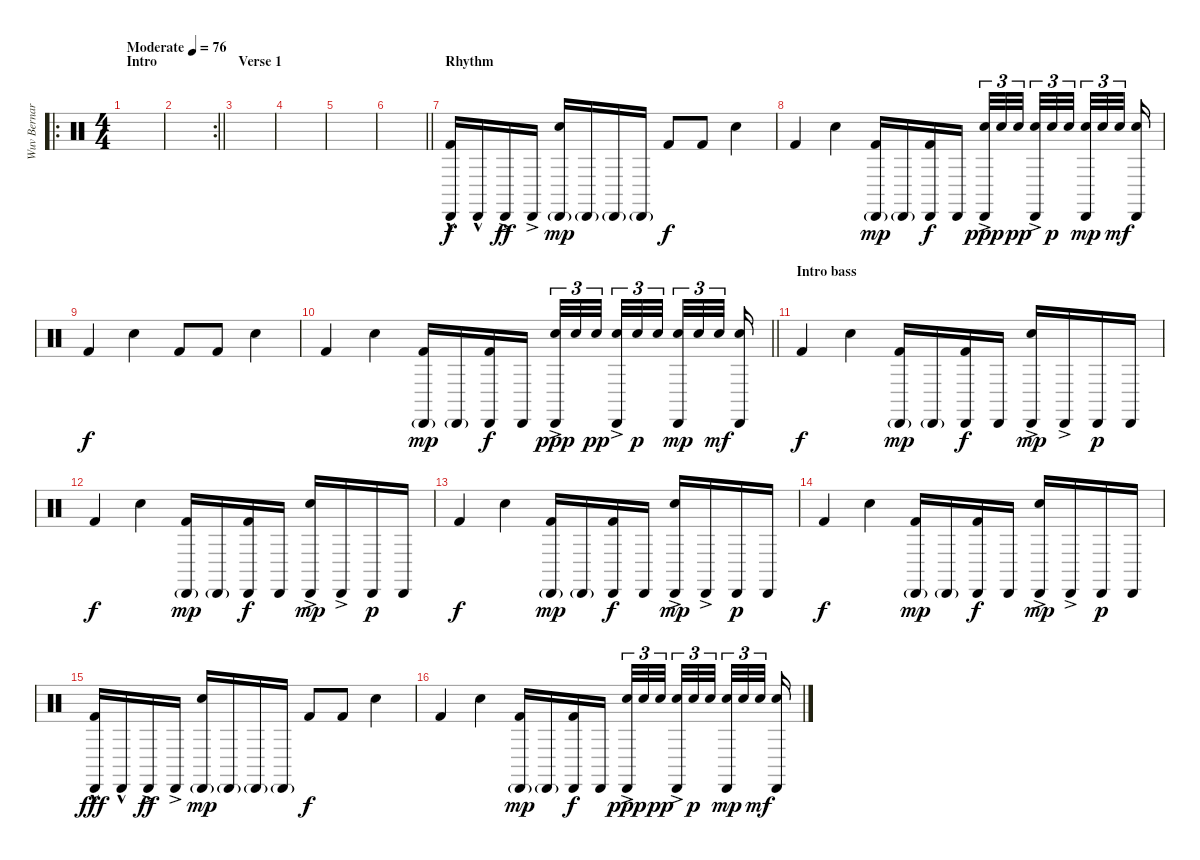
\track ("Wuv Bernardo" "Wuv Bernar") {instrument percussion}
\staff {score}
\articulation defaults
\ro
\ts (4 4)
\section ("" "Intro")
\tempo (76 "Moderate")
\clef neutral
\ks c
|
\rc 2
\barLineRight lightlight
|
\section ("" "Verse 1")
|
|
|
\barLineRight lightlight
|
\section ("" "Rhythm")
("Cabasa (hit)"{hac} "Kick (hit) 2").16 "Cabasa (hit)"{hac}.16 "Cabasa (hit)"{ac}.16{dy ff} "Cabasa (hit)"{ac}.16 ("Cabasa (hit)"{g} "Snare (hit) 2").16{dy mp} "Cabasa (hit)"{g}.16 "Cabasa (hit)"{g}.16 "Cabasa (hit)"{g}.16 "Kick (hit) 2".8{dy f} "Kick (hit) 2".8 "Snare (hit) 2".4 |
"Kick (hit) 2".4 "Snare (hit) 2".4 ("Cabasa (hit)"{g} "Kick (hit) 2").16{dy mp} "Cabasa (hit)"{g}.16 ("Cabasa (hit)" "Kick (hit) 2").16{dy f} "Cabasa (hit)".16 ("Cabasa (hit)"{ac} "Snare (hit) 2").32{tu (3 2) dy ppp} "Snare (hit) 2".32{tu (3 2)} "Snare (hit) 2".32{tu (3 2) dy pp beam splitsecondary} ("Cabasa (hit)"{ac} "Snare (hit) 2").32{tu (3 2)} "Snare (hit) 2".32{tu (3 2) dy p} "Snare (hit) 2".32{tu (3 2) beam splitsecondary} ("Cabasa (hit)" "Snare (hit) 2").32{tu (3 2) dy mp} "Snare (hit) 2".32{tu (3 2)} "Snare (hit) 2".32{tu (3 2) dy mf beam splitsecondary} ("Cabasa (hit)" "Snare (hit) 2").16 |
"Kick (hit) 2".4{dy f} "Snare (hit) 2".4 "Kick (hit) 2".8 "Kick (hit) 2".8 "Snare (hit) 2".4 |
\barLineRight lightlight "Kick (hit) 2".4 "Snare (hit) 2".4
("Cabasa (hit)"{g} "Kick (hit) 2").16{dy mp} "Cabasa (hit)"{g}.16 ("Cabasa (hit)" "Kick (hit) 2").16{dy f} "Cabasa (hit)".16 ("Cabasa (hit)"{ac} "Snare (hit) 2").32{tu (3 2) dy ppp} "Snare (hit) 2".32{tu (3 2)} "Snare (hit) 2".32{tu (3 2) dy pp beam splitsecondary} ("Cabasa (hit)"{ac} "Snare (hit) 2").32{tu (3 2)} "Snare (hit) 2".32{tu (3 2) dy p} "Snare (hit) 2".32{tu (3 2) beam splitsecondary} ("Cabasa (hit)" "Snare (hit) 2").32{tu (3 2) dy mp} "Snare (hit) 2".32{tu (3 2)} "Snare (hit) 2".32{tu (3 2) dy mf beam splitsecondary} ("Cabasa (hit)" "Snare (hit) 2").16 |
\section ("" "Intro bass")
"Kick (hit) 2".4{dy f} "Snare (hit) 2".4 ("Cabasa (hit)"{g} "Kick (hit) 2").16{dy mp} "Cabasa (hit)"{g}.16 ("Cabasa (hit)" "Kick (hit) 2").16{dy f} "Cabasa (hit)".16 ("Cabasa (hit)"{ac} "Snare (hit) 2").16{dy mp} "Cabasa (hit)"{ac}.16 "Cabasa (hit)".16{dy p} "Cabasa (hit)".16 |
"Kick (hit) 2".4{dy f} "Snare (hit) 2".4 ("Cabasa (hit)"{g} "Kick (hit) 2").16{dy mp} "Cabasa (hit)"{g}.16 ("Cabasa (hit)" "Kick (hit) 2").16{dy f} "Cabasa (hit)".16 ("Cabasa (hit)"{ac} "Snare (hit) 2").16{dy mp} "Cabasa (hit)"{ac}.16 "Cabasa (hit)".16{dy p} "Cabasa (hit)".16 |
"Kick (hit) 2".4{dy f} "Snare (hit) 2".4 ("Cabasa (hit)"{g} "Kick (hit) 2").16{dy mp} "Cabasa (hit)"{g}.16 ("Cabasa (hit)" "Kick (hit) 2").16{dy f} "Cabasa (hit)".16 ("Cabasa (hit)"{ac} "Snare (hit) 2").16{dy mp} "Cabasa (hit)"{ac}.16 "Cabasa (hit)".16{dy p} "Cabasa (hit)".16 |
"Kick (hit) 2".4{dy f} "Snare (hit) 2".4 ("Cabasa (hit)"{g} "Kick (hit) 2").16{dy mp} "Cabasa (hit)"{g}.16 ("Cabasa (hit)" "Kick (hit) 2").16{dy f} "Cabasa (hit)".16 ("Cabasa (hit)"{ac} "Snare (hit) 2").16{dy mp} "Cabasa (hit)"{ac}.16 "Cabasa (hit)".16{dy p} "Cabasa (hit)".16 |
("Cabasa (hit)"{hac} "Kick (hit) 2").16{dy fff} "Cabasa (hit)"{hac}.16 "Cabasa (hit)"{ac}.16{dy ff} "Cabasa (hit)"{ac}.16 ("Cabasa (hit)"{g} "Snare (hit) 2").16{dy mp} "Cabasa (hit)"{g}.16 "Cabasa (hit)"{g}.16 "Cabasa (hit)"{g}.16 "Kick (hit) 2".8{dy f} "Kick (hit) 2".8 "Snare (hit) 2".4 |
"Kick (hit) 2".4 "Snare (hit) 2".4 ("Cabasa (hit)"{g} "Kick (hit) 2").16{dy mp} "Cabasa (hit)"{g}.16 ("Cabasa (hit)" "Kick (hit) 2").16{dy f} "Cabasa (hit)".16 ("Cabasa (hit)"{ac} "Snare (hit) 2").32{tu (3 2) dy ppp} "Snare (hit) 2".32{tu (3 2)} "Snare (hit) 2".32{tu (3 2) dy pp beam splitsecondary} ("Cabasa (hit)"{ac} "Snare (hit) 2").32{tu (3 2)} "Snare (hit) 2".32{tu (3 2) dy p} "Snare (hit) 2".32{tu (3 2) beam splitsecondary} ("Cabasa (hit)" "Snare (hit) 2").32{tu (3 2) dy mp} "Snare (hit) 2".32{tu (3 2)} "Snare (hit) 2".32{tu (3 2) dy mf beam splitsecondary} ("Cabasa (hit)" "Snare (hit) 2").16
